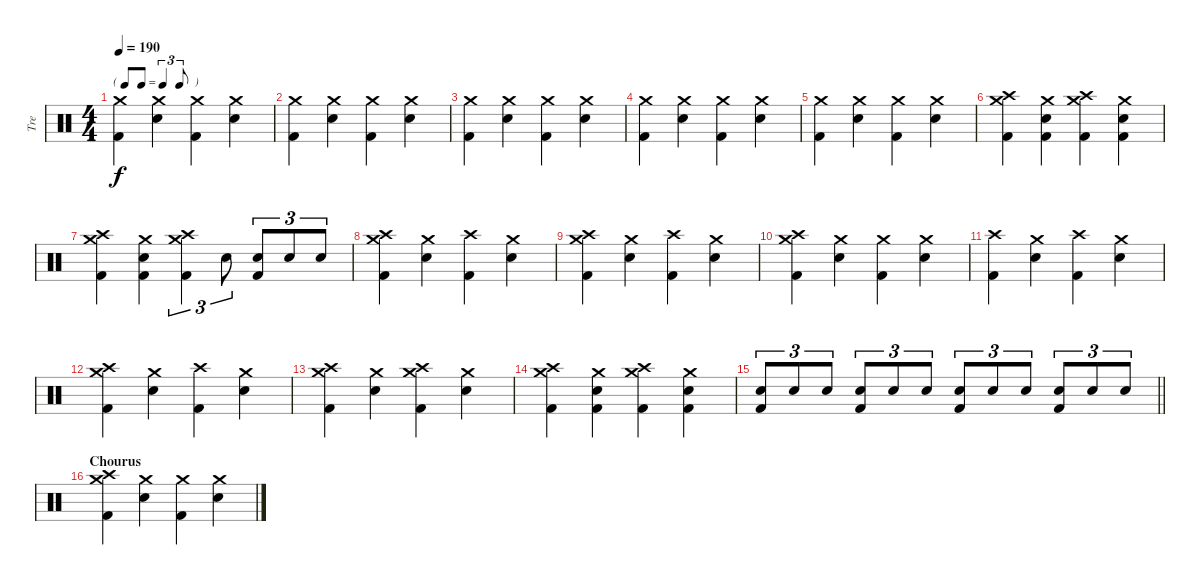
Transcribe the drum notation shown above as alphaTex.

\track ("Tre" "Tre") {instrument percussion}
\staff {score}
\articulation defaults
\ts (4 4)
\tf triplet8th
\tempo 190
\clef neutral
\ks c
("Crash medium (hit)" "Kick (hit) 2").4{dy f} ("Crash medium (hit)" "Snare (hit) 2").4 ("Crash medium (hit)" "Kick (hit) 2").4 ("Crash medium (hit)" "Snare (hit) 2").4 |
("Crash medium (hit)" "Kick (hit) 2").4 ("Crash medium (hit)" "Snare (hit) 2").4 ("Crash medium (hit)" "Kick (hit) 2").4 ("Crash medium (hit)" "Snare (hit) 2").4 |
("Crash medium (hit)" "Kick (hit) 2").4 ("Crash medium (hit)" "Snare (hit) 2").4 ("Crash medium (hit)" "Kick (hit) 2").4 ("Crash medium (hit)" "Snare (hit) 2").4 |
("Crash medium (hit)" "Kick (hit) 2").4 ("Crash medium (hit)" "Snare (hit) 2").4 ("Crash medium (hit)" "Kick (hit) 2").4 ("Crash medium (hit)" "Snare (hit) 2").4 |
("Crash medium (hit)" "Kick (hit) 2").4 ("Crash medium (hit)" "Snare (hit) 2").4 ("Crash medium (hit)" "Kick (hit) 2").4 ("Crash medium (hit)" "Snare (hit) 2").4 |
("Crash medium (hit)" "Crash high (hit)" "Kick (hit) 2").4 ("Crash medium (hit)" "Snare (hit) 2" "Kick (hit) 2").4 ("Crash medium (hit)" "Crash high (hit)" "Kick (hit) 2").4 ("Crash medium (hit)" "Snare (hit) 2" "Kick (hit) 2").4 |
("Crash medium (hit)" "Crash high (hit)" "Kick (hit) 2").4 ("Crash medium (hit)" "Snare (hit) 2" "Kick (hit) 2").4 ("Crash medium (hit)" "Crash high (hit)" "Kick (hit) 2").4{tu (3 2)} "Snare (hit) 2".8{tu (3 2)} ("Snare (hit) 2" "Kick (hit) 2").8{tu (3 2)} "Snare (hit) 2".8{tu (3 2)} "Snare (hit) 2".8{tu (3 2)} |
("Crash medium (hit)" "Crash high (hit)" "Kick (hit) 2").4 ("Crash medium (hit)" "Snare (hit) 2").4 ("Crash high (hit)" "Kick (hit) 2").4 ("Crash medium (hit)" "Snare (hit) 2").4 |
("Crash medium (hit)" "Crash high (hit)" "Kick (hit) 2").4 ("Crash medium (hit)" "Snare (hit) 2").4 ("Crash high (hit)" "Kick (hit) 2").4 ("Crash medium (hit)" "Snare (hit) 2").4 |
("Crash high (hit)" "Crash medium (hit)" "Kick (hit) 2").4 ("Crash medium (hit)" "Snare (hit) 2").4 ("Crash medium (hit)" "Kick (hit) 2").4 ("Crash medium (hit)" "Snare (hit) 2").4 |
("Crash high (hit)" "Kick (hit) 2").4 ("Crash medium (hit)" "Snare (hit) 2").4 ("Crash high (hit)" "Kick (hit) 2").4 ("Crash medium (hit)" "Snare (hit) 2").4 |
("Crash medium (hit)" "Crash high (hit)" "Kick (hit) 2").4 ("Crash medium (hit)" "Snare (hit) 2").4 ("Crash high (hit)" "Kick (hit) 2").4 ("Crash medium (hit)" "Snare (hit) 2").4 |
("Crash medium (hit)" "Crash high (hit)" "Kick (hit) 2").4 ("Crash medium (hit)" "Snare (hit) 2").4 ("Crash medium (hit)" "Crash high (hit)" "Kick (hit) 2").4 ("Crash medium (hit)" "Snare (hit) 2").4 |
("Crash medium (hit)" "Crash high (hit)" "Kick (hit) 2").4 ("Crash medium (hit)" "Snare (hit) 2" "Kick (hit) 2").4 ("Crash medium (hit)" "Crash high (hit)" "Kick (hit) 2").4 ("Crash medium (hit)" "Snare (hit) 2" "Kick (hit) 2").4 |
\barLineRight lightlight
("Snare (hit) 2" "Kick (hit) 2").8{tu (3 2)} "Snare (hit) 2".8{tu (3 2)} "Snare (hit) 2".8{tu (3 2)} ("Snare (hit) 2" "Kick (hit) 2").8{tu (3 2)} "Snare (hit) 2".8{tu (3 2)} "Snare (hit) 2".8{tu (3 2)} ("Snare (hit) 2" "Kick (hit) 2").8{tu (3 2)} "Snare (hit) 2".8{tu (3 2)} "Snare (hit) 2".8{tu (3 2)} ("Snare (hit) 2" "Kick (hit) 2").8{tu (3 2)} "Snare (hit) 2".8{tu (3 2)} "Snare (hit) 2".8{tu (3 2)} |
\section ("" "Chourus")
("Crash medium (hit)" "Crash high (hit)" "Kick (hit) 2").4 ("Crash medium (hit)" "Snare (hit) 2").4 ("Crash medium (hit)" "Kick (hit) 2").4 ("Crash medium (hit)" "Snare (hit) 2").4
